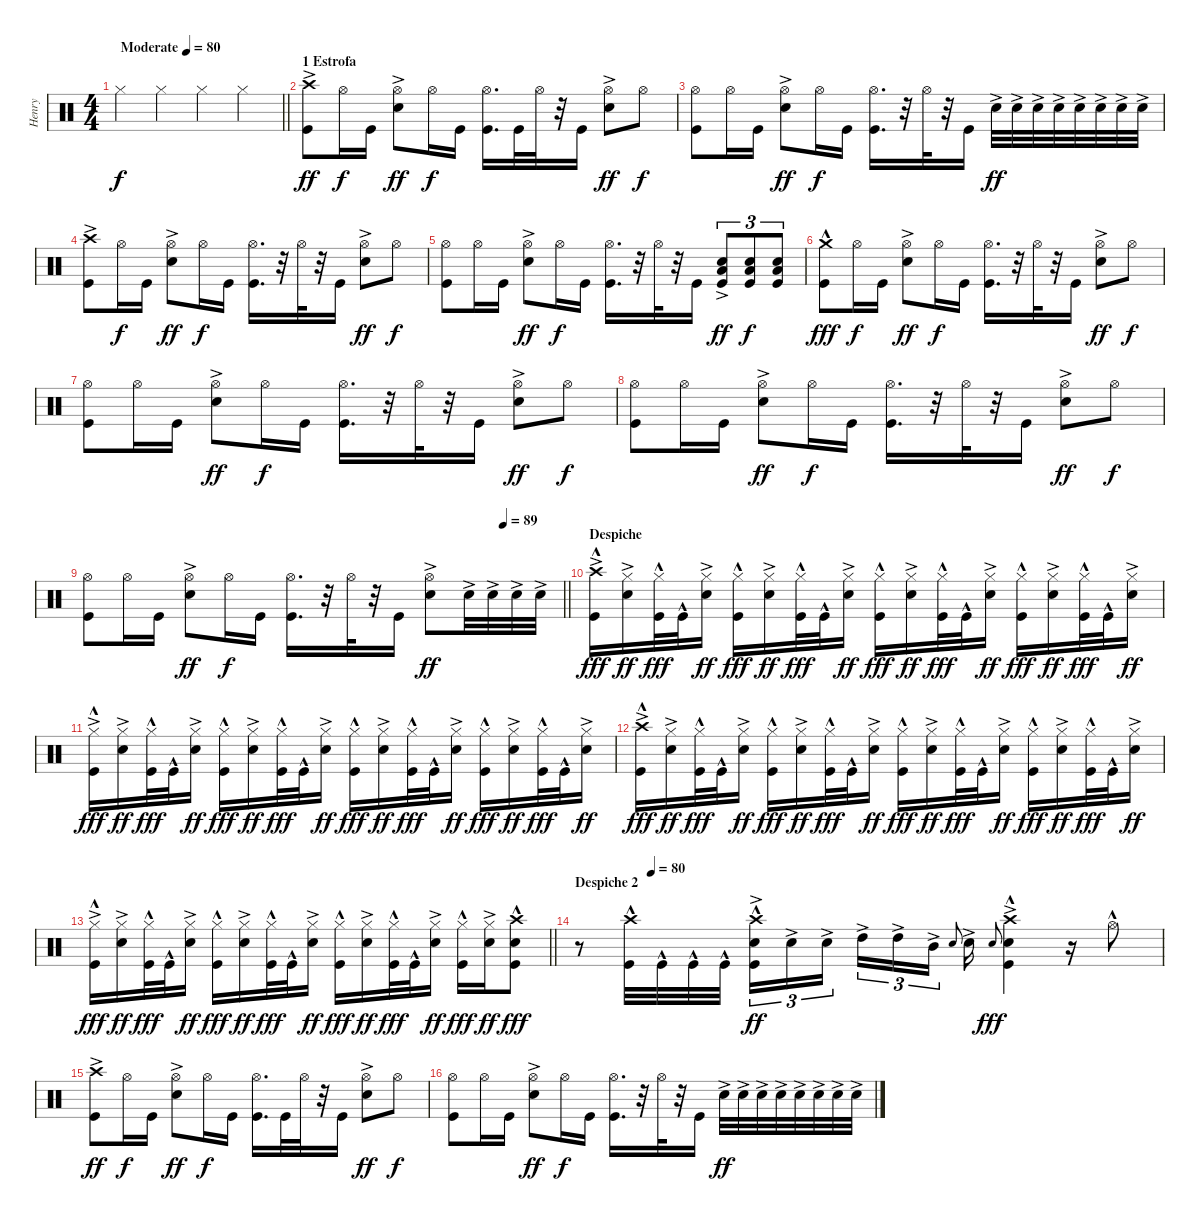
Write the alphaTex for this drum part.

\track ("Henry" "Henry") {instrument percussion}
\staff {score}
\articulation defaults
\ts (4 4)
\tempo (80 "Moderate")
\clef neutral
\barLineRight lightlight
\ks c "Hi-Hat (closed)".4{dy f} "Hi-Hat (closed)".4 "Hi-Hat (closed)".4 "Hi-Hat (closed)".4
|
\section ("" "1 Estrofa")
("Crash high (hit)"{ac} "Kick (hit)").8{dy ff} "Hi-Hat (open)".16{dy f} "Kick (hit)".16 ("Hi-Hat (open)" "Snare (hit) 2"{ac}).8{dy ff} "Hi-Hat (open)".16{dy f} "Kick (hit)".16 ("Hi-Hat (open)" "Kick (hit)").16{d} "Kick (hit)".32 "Hi-Hat (open)".32 r.32 "Kick (hit)".16 ("Hi-Hat (open)" "Snare (hit) 2"{ac}).8{dy ff} "Hi-Hat (open)".8{dy f} |
("Hi-Hat (open)" "Kick (hit)").8 "Hi-Hat (open)".16 "Kick (hit)".16 ("Hi-Hat (open)" "Snare (hit) 2"{ac}).8{dy ff} "Hi-Hat (open)".16{dy f} "Kick (hit)".16 ("Hi-Hat (open)" "Kick (hit)").16{d} r.32 "Hi-Hat (open)".32 r.32 "Kick (hit)".16 "Snare (hit) 2"{ac}.32{dy ff} "Snare (hit) 2"{ac}.32 "Snare (hit) 2"{ac}.32 "Snare (hit) 2"{ac}.32 "Snare (hit) 2"{ac}.32 "Snare (hit) 2"{ac}.32 "Snare (hit) 2"{ac}.32 "Snare (hit) 2"{ac}.32 |
("Crash high (hit)"{ac} "Kick (hit)").8 "Hi-Hat (open)".16{dy f} "Kick (hit)".16 ("Hi-Hat (open)" "Snare (hit) 2"{ac}).8{dy ff} "Hi-Hat (open)".16{dy f} "Kick (hit)".16 ("Hi-Hat (open)" "Kick (hit)").16{d} r.32 "Hi-Hat (open)".32 r.32 "Kick (hit)".16 ("Hi-Hat (open)" "Snare (hit) 2"{ac}).8{dy ff} "Hi-Hat (open)".8{dy f} |
("Hi-Hat (open)" "Kick (hit)").8 "Hi-Hat (open)".16 "Kick (hit)".16 ("Hi-Hat (open)" "Snare (hit) 2"{ac}).8{dy ff} "Hi-Hat (open)".16{dy f} "Kick (hit)".16 ("Hi-Hat (open)" "Kick (hit)").16{d} r.32 "Hi-Hat (open)".32 r.32 "Kick (hit)".16 ("Snare (hit) 2"{ac} "Low Tom (hit)" "Kick (hit)").8{tu (3 2) dy ff} ("Snare (hit) 2" "Low Tom (hit)" "Kick (hit)").8{tu (3 2) dy f} ("Snare (hit) 2" "Low Tom (hit)" "Kick (hit)").8{tu (3 2)} |
("Crash medium (hit)"{hac} "Kick (hit)").8{dy fff} "Hi-Hat (open)".16{dy f} "Kick (hit)".16 ("Hi-Hat (open)" "Snare (hit) 2"{ac}).8{dy ff} "Hi-Hat (open)".16{dy f} "Kick (hit)".16 ("Hi-Hat (open)" "Kick (hit)").16{d} r.32 "Hi-Hat (open)".32 r.32 "Kick (hit)".16 ("Hi-Hat (open)" "Snare (hit) 2"{ac}).8{dy ff} "Hi-Hat (open)".8{dy f} |
("Hi-Hat (open)" "Kick (hit)").8 "Hi-Hat (open)".16 "Kick (hit)".16 ("Hi-Hat (open)" "Snare (hit) 2"{ac}).8{dy ff} "Hi-Hat (open)".16{dy f} "Kick (hit)".16 ("Hi-Hat (open)" "Kick (hit)").16{d} r.32 "Hi-Hat (open)".32 r.32 "Kick (hit)".16 ("Hi-Hat (open)" "Snare (hit) 2"{ac}).8{dy ff} "Hi-Hat (open)".8{dy f} |
("Hi-Hat (open)" "Kick (hit)").8 "Hi-Hat (open)".16 "Kick (hit)".16 ("Hi-Hat (open)" "Snare (hit) 2"{ac}).8{dy ff} "Hi-Hat (open)".16{dy f} "Kick (hit)".16 ("Hi-Hat (open)" "Kick (hit)").16{d} r.32 "Hi-Hat (open)".32 r.32 "Kick (hit)".16 ("Hi-Hat (open)" "Snare (hit) 2"{ac}).8{dy ff} "Hi-Hat (open)".8{dy f} |
\tempo (89 0.875)
\barLineRight lightlight
("Hi-Hat (open)" "Kick (hit)").8 "Hi-Hat (open)".16 "Kick (hit)".16 ("Hi-Hat (open)" "Snare (hit) 2"{ac}).8{dy ff} "Hi-Hat (open)".16{dy f} "Kick (hit)".16 ("Hi-Hat (open)" "Kick (hit)").16{d} r.32 "Hi-Hat (open)".32 r.32 "Kick (hit)".16 ("Hi-Hat (open)" "Snare (hit) 2"{ac}).8{dy ff} "Snare (hit) 2"{ac}.32 "Snare (hit) 2"{ac}.32 "Snare (hit) 2"{ac}.32 "Snare (hit) 2"{ac}.32 |
\section ("" "Despiche")
("Crash high (hit)"{ac} "Kick (hit)"{hac}).16{dy fff} ("Hi-Hat (closed)" "Snare (hit) 2"{ac}).16{dy ff} ("Hi-Hat (closed)" "Kick (hit)"{hac}).32{dy fff} "Kick (hit)"{hac}.32 ("Hi-Hat (closed)" "Snare (hit) 2"{ac}).16{dy ff} ("Hi-Hat (closed)" "Kick (hit)"{hac}).16{dy fff} ("Hi-Hat (closed)" "Snare (hit) 2"{ac}).16{dy ff} ("Hi-Hat (closed)" "Kick (hit)"{hac}).32{dy fff} "Kick (hit)"{hac}.32 ("Hi-Hat (closed)" "Snare (hit) 2"{ac}).16{dy ff} ("Hi-Hat (closed)" "Kick (hit)"{hac}).16{dy fff} ("Hi-Hat (closed)" "Snare (hit) 2"{ac}).16{dy ff} ("Hi-Hat (closed)" "Kick (hit)"{hac}).32{dy fff} "Kick (hit)"{hac}.32 ("Hi-Hat (closed)" "Snare (hit) 2"{ac}).16{dy ff} ("Hi-Hat (closed)" "Kick (hit)"{hac}).16{dy fff} ("Hi-Hat (closed)" "Snare (hit) 2"{ac}).16{dy ff} ("Hi-Hat (closed)" "Kick (hit)"{hac}).32{dy fff} "Kick (hit)"{hac}.32 ("Hi-Hat (closed)" "Snare (hit) 2"{ac}).16{dy ff} |
("Hi-Hat (closed)"{ac} "Kick (hit)"{hac}).16{dy fff} ("Hi-Hat (closed)" "Snare (hit) 2"{ac}).16{dy ff} ("Hi-Hat (closed)" "Kick (hit)"{hac}).32{dy fff} "Kick (hit)"{hac}.32 ("Hi-Hat (closed)" "Snare (hit) 2"{ac}).16{dy ff} ("Hi-Hat (closed)" "Kick (hit)"{hac}).16{dy fff} ("Hi-Hat (closed)" "Snare (hit) 2"{ac}).16{dy ff} ("Hi-Hat (closed)" "Kick (hit)"{hac}).32{dy fff} "Kick (hit)"{hac}.32 ("Hi-Hat (closed)" "Snare (hit) 2"{ac}).16{dy ff} ("Hi-Hat (closed)" "Kick (hit)"{hac}).16{dy fff} ("Hi-Hat (closed)" "Snare (hit) 2"{ac}).16{dy ff} ("Hi-Hat (closed)" "Kick (hit)"{hac}).32{dy fff} "Kick (hit)"{hac}.32 ("Hi-Hat (closed)" "Snare (hit) 2"{ac}).16{dy ff} ("Hi-Hat (closed)" "Kick (hit)"{hac}).16{dy fff} ("Hi-Hat (closed)" "Snare (hit) 2"{ac}).16{dy ff} ("Hi-Hat (closed)" "Kick (hit)"{hac}).32{dy fff} "Kick (hit)"{hac}.32 ("Hi-Hat (closed)" "Snare (hit) 2"{ac}).16{dy ff} |
("Crash high (hit)"{ac} "Kick (hit)"{hac}).16{dy fff} ("Hi-Hat (closed)" "Snare (hit) 2"{ac}).16{dy ff} ("Hi-Hat (closed)" "Kick (hit)"{hac}).32{dy fff} "Kick (hit)"{hac}.32 ("Hi-Hat (closed)" "Snare (hit) 2"{ac}).16{dy ff} ("Hi-Hat (closed)" "Kick (hit)"{hac}).16{dy fff} ("Hi-Hat (closed)" "Snare (hit) 2"{ac}).16{dy ff} ("Hi-Hat (closed)" "Kick (hit)"{hac}).32{dy fff} "Kick (hit)"{hac}.32 ("Hi-Hat (closed)" "Snare (hit) 2"{ac}).16{dy ff} ("Hi-Hat (closed)" "Kick (hit)"{hac}).16{dy fff} ("Hi-Hat (closed)" "Snare (hit) 2"{ac}).16{dy ff} ("Hi-Hat (closed)" "Kick (hit)"{hac}).32{dy fff} "Kick (hit)"{hac}.32 ("Hi-Hat (closed)" "Snare (hit) 2"{ac}).16{dy ff} ("Hi-Hat (closed)" "Kick (hit)"{hac}).16{dy fff} ("Hi-Hat (closed)" "Snare (hit) 2"{ac}).16{dy ff} ("Hi-Hat (closed)" "Kick (hit)"{hac}).32{dy fff} "Kick (hit)"{hac}.32 ("Hi-Hat (closed)" "Snare (hit) 2"{ac}).16{dy ff} |
\barLineRight lightlight
("Hi-Hat (closed)"{ac} "Kick (hit)"{hac}).16{dy fff} ("Hi-Hat (closed)" "Snare (hit) 2"{ac}).16{dy ff} ("Hi-Hat (closed)" "Kick (hit)"{hac}).32{dy fff} "Kick (hit)"{hac}.32 ("Hi-Hat (closed)" "Snare (hit) 2"{ac}).16{dy ff} ("Hi-Hat (closed)" "Kick (hit)"{hac}).16{dy fff} ("Hi-Hat (closed)" "Snare (hit) 2"{ac}).16{dy ff} ("Hi-Hat (closed)" "Kick (hit)"{hac}).32{dy fff} "Kick (hit)"{hac}.32 ("Hi-Hat (closed)" "Snare (hit) 2"{ac}).16{dy ff} ("Hi-Hat (closed)" "Kick (hit)"{hac}).16{dy fff} ("Hi-Hat (closed)" "Snare (hit) 2"{ac}).16{dy ff} ("Hi-Hat (closed)" "Kick (hit)"{hac}).32{dy fff} "Kick (hit)"{hac}.32 ("Hi-Hat (closed)" "Snare (hit) 2"{ac}).16{dy ff} ("Hi-Hat (closed)" "Kick (hit)"{hac}).16{dy fff} ("Hi-Hat (closed)" "Snare (hit) 2"{ac}).16{dy ff} ("Crash high (hit)"{hac} "Snare (hit) 2"{hac} "Kick (hit)"{hac}).8{dy fff} |
\section ("" "Despiche 2")
\tempo (80 0.125)
r.8 ("Crash high (hit)"{hac} "Kick (hit)"{hac}).32 "Kick (hit)"{hac}.32 "Kick (hit)"{hac}.32 "Kick (hit)"{hac}.32 ("Crash high (hit)"{hac} "Snare (hit) 2"{ac} "Kick (hit)"{ac}).16{tu (3 2) dy ff} "Snare (hit) 2"{ac}.16{tu (3 2)} "Snare (hit) 2"{ac}.16{tu (3 2) beam splitsecondary} "High Tom (hit)"{ac}.16{tu (3 2)} "High Tom (hit)"{ac}.16{tu (3 2)} "Mid Tom (hit)"{ac}.16{tu (3 2)} "Snare (hit) 2".8{gr onbeat} "Snare (hit) 2"{ac}.16 "Snare (hit) 2".8{gr onbeat dy fff} ("Crash high (hit)"{ac} "Snare (hit) 2"{hac} "Kick (hit)").4 r.16 "Hi-Hat (open)"{hac}.8 |
("Crash high (hit)"{ac} "Kick (hit)").8{dy ff} "Hi-Hat (open)".16{dy f} "Kick (hit)".16 ("Hi-Hat (open)" "Snare (hit) 2"{ac}).8{dy ff} "Hi-Hat (open)".16{dy f} "Kick (hit)".16 ("Hi-Hat (open)" "Kick (hit)").16{d} "Kick (hit)".32 "Hi-Hat (open)".32 r.32 "Kick (hit)".16 ("Hi-Hat (open)" "Snare (hit) 2"{ac}).8{dy ff} "Hi-Hat (open)".8{dy f} |
("Hi-Hat (open)" "Kick (hit)").8 "Hi-Hat (open)".16 "Kick (hit)".16 ("Hi-Hat (open)" "Snare (hit) 2"{ac}).8{dy ff} "Hi-Hat (open)".16{dy f} "Kick (hit)".16 ("Hi-Hat (open)" "Kick (hit)").16{d} r.32 "Hi-Hat (open)".32 r.32 "Kick (hit)".16 "Snare (hit) 2"{ac}.32{dy ff} "Snare (hit) 2"{ac}.32 "Snare (hit) 2"{ac}.32 "Snare (hit) 2"{ac}.32 "Snare (hit) 2"{ac}.32 "Snare (hit) 2"{ac}.32 "Snare (hit) 2"{ac}.32 "Snare (hit) 2"{ac}.32
